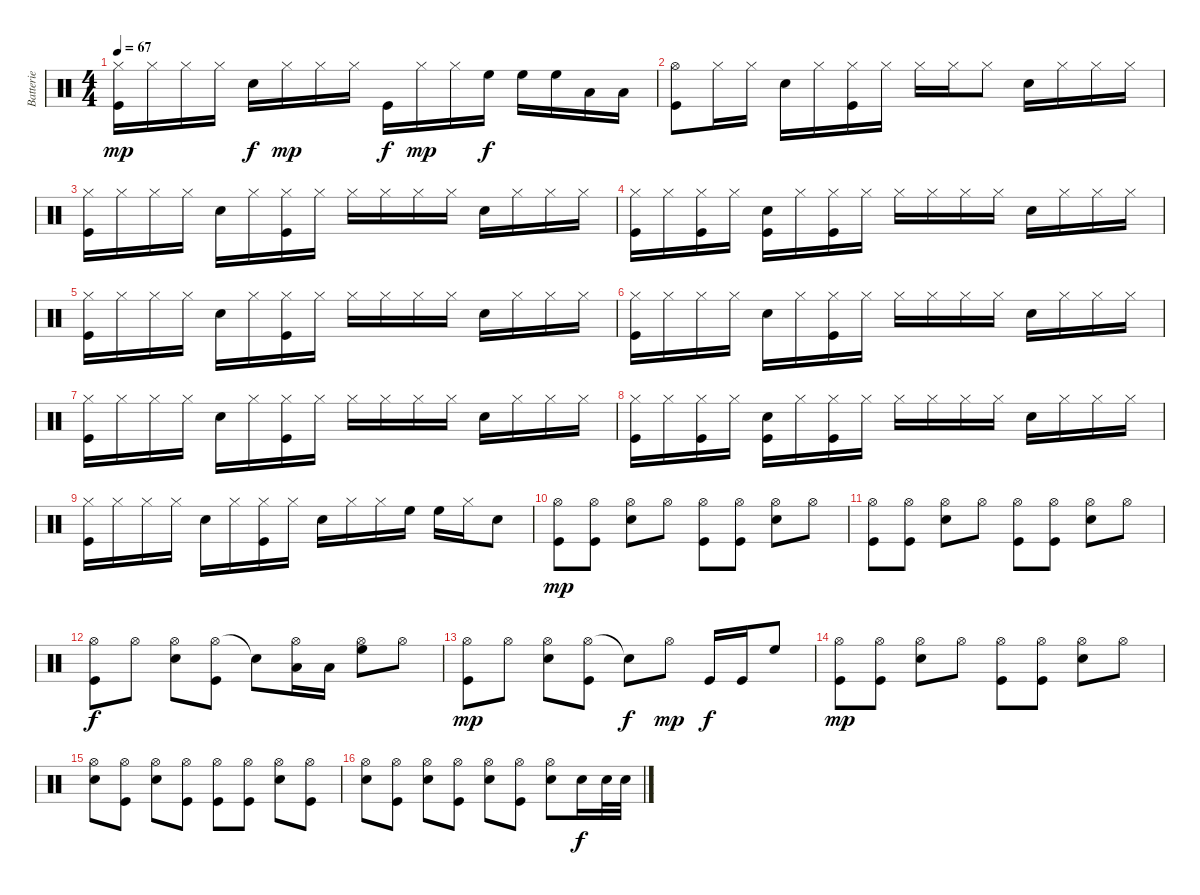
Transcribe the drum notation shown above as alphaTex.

\track ("Batterie" "Batterie") {instrument percussion}
\staff {score}
\articulation defaults
\ts (4 4)
\tempo 67
\clef neutral
\ks c
("Hi-Hat (closed)" "Kick (hit)").16{dy mp} "Hi-Hat (closed)".16 "Hi-Hat (closed)".16 "Hi-Hat (closed)".16 "Snare (hit) 2".16{dy f} "Hi-Hat (closed)".16{dy mp} "Hi-Hat (closed)".16 "Hi-Hat (closed)".16 "Kick (hit)".16{dy f} "Hi-Hat (closed)".16{dy mp} "Hi-Hat (closed)".16 "High Floor Tom (hit)".16{dy f} "High Floor Tom (hit)".16 "High Floor Tom (hit)".16 "Low Tom (hit)".16 "Low Tom (hit)".16 |
("Hi-Hat (open)" "Kick (hit)").8 "Hi-Hat (closed)".16 "Hi-Hat (closed)".16 "Snare (hit) 2".16 "Hi-Hat (closed)".16 ("Hi-Hat (closed)" "Kick (hit)").16 "Hi-Hat (closed)".16 "Hi-Hat (closed)".16 "Hi-Hat (closed)".16 "Hi-Hat (closed)".8 "Snare (hit) 2".16 "Hi-Hat (closed)".16 "Hi-Hat (closed)".16 "Hi-Hat (closed)".16 |
("Hi-Hat (closed)" "Kick (hit)").16 "Hi-Hat (closed)".16 "Hi-Hat (closed)".16 "Hi-Hat (closed)".16 "Snare (hit) 2".16 "Hi-Hat (closed)".16 ("Hi-Hat (closed)" "Kick (hit)").16 "Hi-Hat (closed)".16 "Hi-Hat (closed)".16 "Hi-Hat (closed)".16 "Hi-Hat (closed)".16 "Hi-Hat (closed)".16 "Snare (hit) 2".16 "Hi-Hat (closed)".16 "Hi-Hat (closed)".16 "Hi-Hat (closed)".16 |
("Hi-Hat (closed)" "Kick (hit)").16 "Hi-Hat (closed)".16 ("Hi-Hat (closed)" "Kick (hit)").16 "Hi-Hat (closed)".16 ("Snare (hit) 2" "Kick (hit)").16 "Hi-Hat (closed)".16 ("Hi-Hat (closed)" "Kick (hit)").16 "Hi-Hat (closed)".16 "Hi-Hat (closed)".16 "Hi-Hat (closed)".16 "Hi-Hat (closed)".16 "Hi-Hat (closed)".16 "Snare (hit) 2".16 "Hi-Hat (closed)".16 "Hi-Hat (closed)".16 "Hi-Hat (closed)".16 |
("Hi-Hat (closed)" "Kick (hit)").16 "Hi-Hat (closed)".16 "Hi-Hat (closed)".16 "Hi-Hat (closed)".16 "Snare (hit) 2".16 "Hi-Hat (closed)".16 ("Hi-Hat (closed)" "Kick (hit)").16 "Hi-Hat (closed)".16 "Hi-Hat (closed)".16 "Hi-Hat (closed)".16 "Hi-Hat (closed)".16 "Hi-Hat (closed)".16 "Snare (hit) 2".16 "Hi-Hat (closed)".16 "Hi-Hat (closed)".16 "Hi-Hat (closed)".16 |
("Hi-Hat (closed)" "Kick (hit)").16 "Hi-Hat (closed)".16 "Hi-Hat (closed)".16 "Hi-Hat (closed)".16 "Snare (hit) 2".16 "Hi-Hat (closed)".16 ("Hi-Hat (closed)" "Kick (hit)").16 "Hi-Hat (closed)".16 "Hi-Hat (closed)".16 "Hi-Hat (closed)".16 "Hi-Hat (closed)".16 "Hi-Hat (closed)".16 "Snare (hit) 2".16 "Hi-Hat (closed)".16 "Hi-Hat (closed)".16 "Hi-Hat (closed)".16 |
("Hi-Hat (closed)" "Kick (hit)").16 "Hi-Hat (closed)".16 "Hi-Hat (closed)".16 "Hi-Hat (closed)".16 "Snare (hit) 2".16 "Hi-Hat (closed)".16 ("Hi-Hat (closed)" "Kick (hit)").16 "Hi-Hat (closed)".16 "Hi-Hat (closed)".16 "Hi-Hat (closed)".16 "Hi-Hat (closed)".16 "Hi-Hat (closed)".16 "Snare (hit) 2".16 "Hi-Hat (closed)".16 "Hi-Hat (closed)".16 "Hi-Hat (closed)".16 |
("Hi-Hat (closed)" "Kick (hit)").16 "Hi-Hat (closed)".16 ("Hi-Hat (closed)" "Kick (hit)").16 "Hi-Hat (closed)".16 ("Snare (hit) 2" "Kick (hit)").16 "Hi-Hat (closed)".16 ("Hi-Hat (closed)" "Kick (hit)").16 "Hi-Hat (closed)".16 "Hi-Hat (closed)".16 "Hi-Hat (closed)".16 "Hi-Hat (closed)".16 "Hi-Hat (closed)".16 "Snare (hit) 2".16 "Hi-Hat (closed)".16 "Hi-Hat (closed)".16 "Hi-Hat (closed)".16 |
("Hi-Hat (closed)" "Kick (hit)").16 "Hi-Hat (closed)".16 "Hi-Hat (closed)".16 "Hi-Hat (closed)".16 "Snare (hit) 2".16 "Hi-Hat (closed)".16 ("Hi-Hat (closed)" "Kick (hit)").16 "Hi-Hat (closed)".16 "Snare (hit) 2".16 "Hi-Hat (closed)".16 "Hi-Hat (closed)".16 "High Floor Tom (hit)".16 "High Floor Tom (hit)".16 "Hi-Hat (closed)".16 "Snare (hit) 2".8 |
("Hi-Hat (open)" "Kick (hit)").8{dy mp} ("Hi-Hat (open)" "Kick (hit)").8 ("Hi-Hat (open)" "Snare (hit) 2").8 "Hi-Hat (open)".8 ("Hi-Hat (open)" "Kick (hit)").8 ("Hi-Hat (open)" "Kick (hit)").8 ("Hi-Hat (open)" "Snare (hit) 2").8 "Hi-Hat (open)".8 |
("Hi-Hat (open)" "Kick (hit)").8 ("Hi-Hat (open)" "Kick (hit)").8 ("Hi-Hat (open)" "Snare (hit) 2").8 "Hi-Hat (open)".8 ("Hi-Hat (open)" "Kick (hit)").8 ("Hi-Hat (open)" "Kick (hit)").8 ("Hi-Hat (open)" "Snare (hit) 2").8 "Hi-Hat (open)".8 |
("Hi-Hat (open)" "Kick (hit)").8{dy f} "Hi-Hat (open)".8 ("Hi-Hat (open)" "Snare (hit) 2").8 ("Hi-Hat (open)" "Kick (hit)").8 "Snare (hit)"{t}.8 ("Hi-Hat (open)" "Low Tom (hit)").16 "Low Tom (hit)".16 ("Hi-Hat (open)" "High Floor Tom (hit)").8 "Hi-Hat (open)".8 |
("Hi-Hat (open)" "Kick (hit)").8{dy mp} "Hi-Hat (open)".8 ("Hi-Hat (open)" "Snare (hit) 2").8 ("Hi-Hat (open)" "Kick (hit)").8 "Snare (hit)"{t}.8{dy f} "Hi-Hat (open)".8{dy mp} "Kick (hit)".16{dy f} "Kick (hit)".16 "High Floor Tom (hit)".8 |
("Hi-Hat (open)" "Kick (hit)").8{dy mp} ("Hi-Hat (open)" "Kick (hit)").8 ("Hi-Hat (open)" "Snare (hit) 2").8 "Hi-Hat (open)".8 ("Hi-Hat (open)" "Kick (hit)").8 ("Hi-Hat (open)" "Kick (hit)").8 ("Hi-Hat (open)" "Snare (hit) 2").8 "Hi-Hat (open)".8 |
("Hi-Hat (open)" "Snare (hit) 2").8 ("Hi-Hat (open)" "Kick (hit)").8 ("Hi-Hat (open)" "Snare (hit) 2").8 ("Hi-Hat (open)" "Kick (hit)").8 ("Hi-Hat (open)" "Kick (hit)").8 ("Hi-Hat (open)" "Kick (hit)").8 ("Hi-Hat (open)" "Snare (hit) 2").8 ("Hi-Hat (open)" "Kick (hit)").8 |
("Hi-Hat (open)" "Snare (hit) 2").8 ("Hi-Hat (open)" "Kick (hit)").8 ("Hi-Hat (open)" "Snare (hit) 2").8 ("Hi-Hat (open)" "Kick (hit)").8 ("Hi-Hat (open)" "Snare (hit) 2").8 ("Hi-Hat (open)" "Kick (hit)").8 ("Hi-Hat (open)" "Snare (hit) 2").8 "Snare (hit) 2".16{dy f} "Snare (hit) 2".32 "Snare (hit) 2".32
